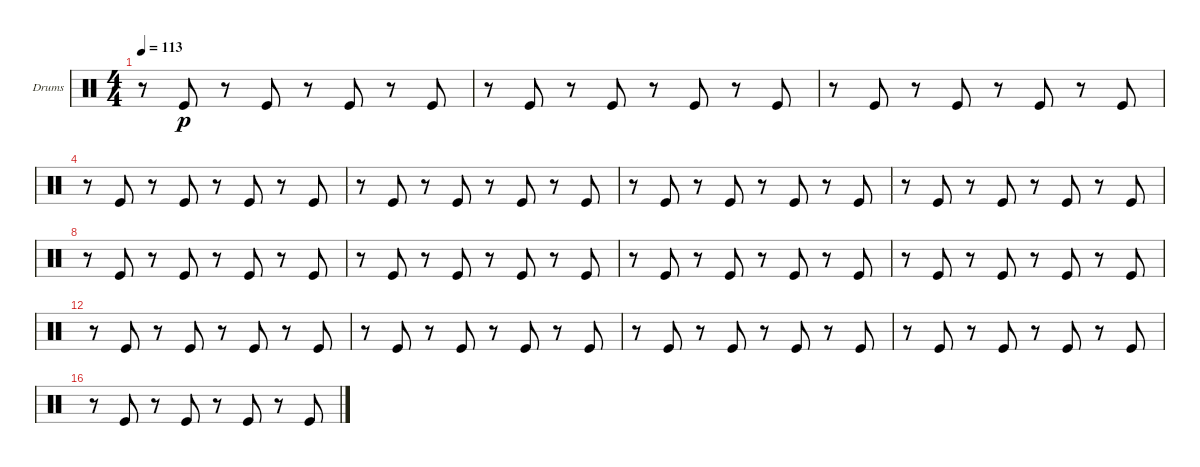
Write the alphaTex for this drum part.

\bracketExtendMode nobrackets
\firstSystemTrackNameOrientation horizontal
\otherSystemsTrackNameOrientation horizontal
\defaultBarNumberDisplay FirstOfSystem
\track ("Drumkit" "Drums") {solo instrument percussion}
\staff {score}
\articulation defaults
\ts (4 4)
\tempo 113
\clef neutral
\scale
0.25
\ks c
r.8{dy p} "Kick (hit)".8 r.8 "Kick (hit)".8 r.8 "Kick (hit)".8 r.8 "Kick (hit)".8 |
\scale
0.25 r.8 "Kick (hit)".8 r.8 "Kick (hit)".8 r.8 "Kick (hit)".8 r.8 "Kick (hit)".8 |
\scale
0.25 r.8 "Kick (hit)".8 r.8 "Kick (hit)".8 r.8 "Kick (hit)".8 r.8 "Kick (hit)".8 |
\scale
0.25 r.8 "Kick (hit)".8 r.8 "Kick (hit)".8 r.8 "Kick (hit)".8 r.8 "Kick (hit)".8 |
\scale
0.25 r.8 "Kick (hit)".8 r.8 "Kick (hit)".8 r.8 "Kick (hit)".8 r.8 "Kick (hit)".8 |
\scale
0.25 r.8 "Kick (hit)".8 r.8 "Kick (hit)".8 r.8 "Kick (hit)".8 r.8 "Kick (hit)".8 |
\scale
0.25 r.8 "Kick (hit)".8 r.8 "Kick (hit)".8 r.8 "Kick (hit)".8 r.8 "Kick (hit)".8 |
\scale
0.25 r.8 "Kick (hit)".8 r.8 "Kick (hit)".8 r.8 "Kick (hit)".8 r.8 "Kick (hit)".8 |
\scale
0.25 r.8 "Kick (hit)".8 r.8 "Kick (hit)".8 r.8 "Kick (hit)".8 r.8 "Kick (hit)".8 |
\scale
0.25 r.8 "Kick (hit)".8 r.8 "Kick (hit)".8 r.8 "Kick (hit)".8 r.8 "Kick (hit)".8 |
\scale
0.25 r.8 "Kick (hit)".8 r.8 "Kick (hit)".8 r.8 "Kick (hit)".8 r.8 "Kick (hit)".8 |
\scale
0.25 r.8 "Kick (hit)".8 r.8 "Kick (hit)".8 r.8 "Kick (hit)".8 r.8 "Kick (hit)".8 |
\scale
0.25 r.8 "Kick (hit)".8 r.8 "Kick (hit)".8 r.8 "Kick (hit)".8 r.8 "Kick (hit)".8 |
\scale
0.25 r.8 "Kick (hit)".8 r.8 "Kick (hit)".8 r.8 "Kick (hit)".8 r.8 "Kick (hit)".8 |
\scale
0.25 r.8 "Kick (hit)".8 r.8 "Kick (hit)".8 r.8 "Kick (hit)".8 r.8 "Kick (hit)".8 |
\scale
0.25 r.8 "Kick (hit)".8 r.8 "Kick (hit)".8 r.8 "Kick (hit)".8 r.8 "Kick (hit)".8
